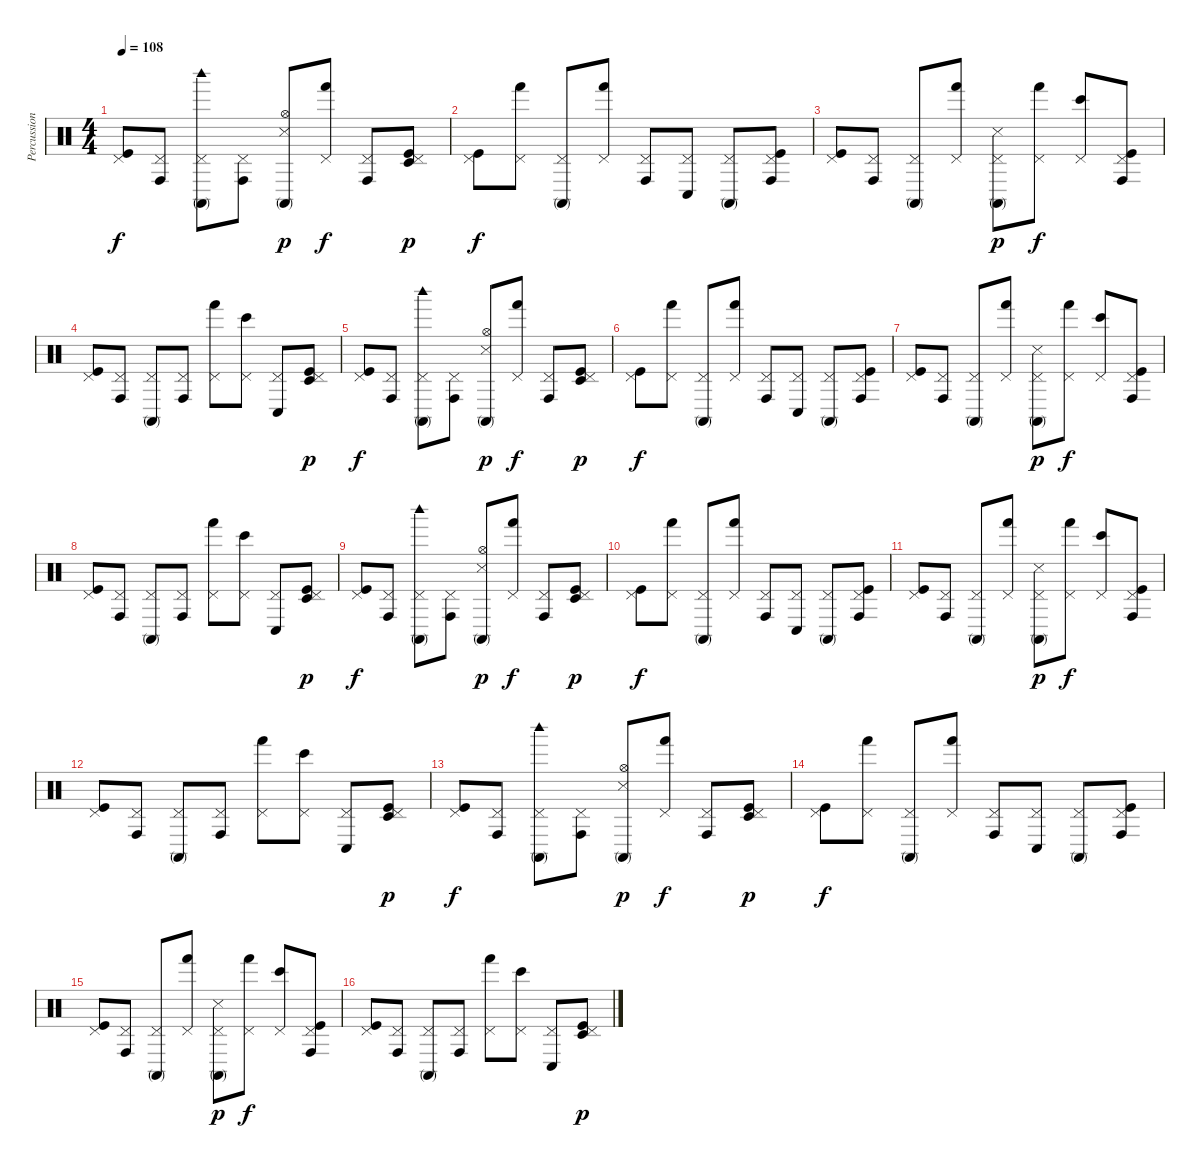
\track ("Percussions" "Percussion") {instrument percussion}
\staff {score}
\articulation defaults
\ts (4 4)
\tempo 108
\clef neutral
\ks c
("Pedal Hi-Hat (hit)" "Kick (hit)").8{dy f} ("Pedal Hi-Hat (hit)" "Conga high (hit)").8 ("Pedal Hi-Hat (hit)" "Conga high (mute)" "Woodblock high (hit)").8 ("Pedal Hi-Hat (hit)" "Conga high (hit)").8 ("Hi-Hat (open)" "Snare (side stick) 3" "Conga high (mute)").8{dy p} ("Pedal Hi-Hat (hit)" "Hand (hit)").8{dy f} ("Pedal Hi-Hat (hit)" "Conga high (hit)").8 ("Pedal Hi-Hat (hit)" "Kick (hit)" "Timbale low (hit)").8{dy p} |
("Pedal Hi-Hat (hit)" "Kick (hit)").8{dy f} ("Pedal Hi-Hat (hit)" "Hand (hit)").8 ("Pedal Hi-Hat (hit)" "Conga high (mute)").8 ("Pedal Hi-Hat (hit)" "Hand (hit)").8 ("Pedal Hi-Hat (hit)" "Conga high (hit)").8 ("Pedal Hi-Hat (hit)" "Conga low (hit)").8 ("Pedal Hi-Hat (hit)" "Conga high (mute)").8 ("Pedal Hi-Hat (hit)" "Kick (hit)" "Conga high (hit)").8 |
("Pedal Hi-Hat (hit)" "Kick (hit)").8 ("Pedal Hi-Hat (hit)" "Conga high (hit)").8 ("Pedal Hi-Hat (hit)" "Conga high (mute)").8 ("Pedal Hi-Hat (hit)" "Hand (hit)").8 ("Pedal Hi-Hat (hit)" "Conga high (mute)" "Snare (side stick) 3").8{dy p} ("Pedal Hi-Hat (hit)" "Hand (hit)").8{dy f} ("Pedal Hi-Hat (hit)" "Bongo High (hit)").8 ("Pedal Hi-Hat (hit)" "Conga high (hit)" "Kick (hit)").8 |
("Pedal Hi-Hat (hit)" "Kick (hit)").8 ("Pedal Hi-Hat (hit)" "Conga high (hit)").8 ("Pedal Hi-Hat (hit)" "Conga high (mute)").8 ("Pedal Hi-Hat (hit)" "Conga high (hit)").8 ("Pedal Hi-Hat (hit)" "Hand (hit)").8 ("Pedal Hi-Hat (hit)" "Bongo High (hit)").8 ("Pedal Hi-Hat (hit)" "Conga low (hit)").8 ("Pedal Hi-Hat (hit)" "Kick (hit)" "Timbale low (hit)").8{dy p} |
("Pedal Hi-Hat (hit)" "Kick (hit)").8{dy f} ("Pedal Hi-Hat (hit)" "Conga high (hit)").8 ("Pedal Hi-Hat (hit)" "Conga high (mute)" "Woodblock high (hit)").8 ("Pedal Hi-Hat (hit)" "Conga high (hit)").8 ("Hi-Hat (open)" "Snare (side stick) 3" "Conga high (mute)").8{dy p} ("Pedal Hi-Hat (hit)" "Hand (hit)").8{dy f} ("Pedal Hi-Hat (hit)" "Conga high (hit)").8 ("Pedal Hi-Hat (hit)" "Kick (hit)" "Timbale low (hit)").8{dy p} |
("Pedal Hi-Hat (hit)" "Kick (hit)").8{dy f} ("Pedal Hi-Hat (hit)" "Hand (hit)").8 ("Pedal Hi-Hat (hit)" "Conga high (mute)").8 ("Pedal Hi-Hat (hit)" "Hand (hit)").8 ("Pedal Hi-Hat (hit)" "Conga high (hit)").8 ("Pedal Hi-Hat (hit)" "Conga low (hit)").8 ("Pedal Hi-Hat (hit)" "Conga high (mute)").8 ("Pedal Hi-Hat (hit)" "Kick (hit)" "Conga high (hit)").8 |
("Pedal Hi-Hat (hit)" "Kick (hit)").8 ("Pedal Hi-Hat (hit)" "Conga high (hit)").8 ("Pedal Hi-Hat (hit)" "Conga high (mute)").8 ("Pedal Hi-Hat (hit)" "Hand (hit)").8 ("Pedal Hi-Hat (hit)" "Conga high (mute)" "Snare (side stick) 3").8{dy p} ("Pedal Hi-Hat (hit)" "Hand (hit)").8{dy f} ("Pedal Hi-Hat (hit)" "Bongo High (hit)").8 ("Pedal Hi-Hat (hit)" "Conga high (hit)" "Kick (hit)").8 |
("Pedal Hi-Hat (hit)" "Kick (hit)").8 ("Pedal Hi-Hat (hit)" "Conga high (hit)").8 ("Pedal Hi-Hat (hit)" "Conga high (mute)").8 ("Pedal Hi-Hat (hit)" "Conga high (hit)").8 ("Pedal Hi-Hat (hit)" "Hand (hit)").8 ("Pedal Hi-Hat (hit)" "Bongo High (hit)").8 ("Pedal Hi-Hat (hit)" "Conga low (hit)").8 ("Pedal Hi-Hat (hit)" "Kick (hit)" "Timbale low (hit)").8{dy p} |
("Pedal Hi-Hat (hit)" "Kick (hit)").8{dy f} ("Pedal Hi-Hat (hit)" "Conga high (hit)").8 ("Pedal Hi-Hat (hit)" "Conga high (mute)" "Woodblock high (hit)").8 ("Pedal Hi-Hat (hit)" "Conga high (hit)").8 ("Hi-Hat (open)" "Snare (side stick) 3" "Conga high (mute)").8{dy p} ("Pedal Hi-Hat (hit)" "Hand (hit)").8{dy f} ("Pedal Hi-Hat (hit)" "Conga high (hit)").8 ("Pedal Hi-Hat (hit)" "Kick (hit)" "Timbale low (hit)").8{dy p} |
("Pedal Hi-Hat (hit)" "Kick (hit)").8{dy f} ("Pedal Hi-Hat (hit)" "Hand (hit)").8 ("Pedal Hi-Hat (hit)" "Conga high (mute)").8 ("Pedal Hi-Hat (hit)" "Hand (hit)").8 ("Pedal Hi-Hat (hit)" "Conga high (hit)").8 ("Pedal Hi-Hat (hit)" "Conga low (hit)").8 ("Pedal Hi-Hat (hit)" "Conga high (mute)").8 ("Pedal Hi-Hat (hit)" "Kick (hit)" "Conga high (hit)").8 |
("Pedal Hi-Hat (hit)" "Kick (hit)").8 ("Pedal Hi-Hat (hit)" "Conga high (hit)").8 ("Pedal Hi-Hat (hit)" "Conga high (mute)").8 ("Pedal Hi-Hat (hit)" "Hand (hit)").8 ("Pedal Hi-Hat (hit)" "Conga high (mute)" "Snare (side stick) 3").8{dy p} ("Pedal Hi-Hat (hit)" "Hand (hit)").8{dy f} ("Pedal Hi-Hat (hit)" "Bongo High (hit)").8 ("Pedal Hi-Hat (hit)" "Conga high (hit)" "Kick (hit)").8 |
("Pedal Hi-Hat (hit)" "Kick (hit)").8 ("Pedal Hi-Hat (hit)" "Conga high (hit)").8 ("Pedal Hi-Hat (hit)" "Conga high (mute)").8 ("Pedal Hi-Hat (hit)" "Conga high (hit)").8 ("Pedal Hi-Hat (hit)" "Hand (hit)").8 ("Pedal Hi-Hat (hit)" "Bongo High (hit)").8 ("Pedal Hi-Hat (hit)" "Conga low (hit)").8 ("Pedal Hi-Hat (hit)" "Kick (hit)" "Timbale low (hit)").8{dy p} |
("Pedal Hi-Hat (hit)" "Kick (hit)").8{dy f} ("Pedal Hi-Hat (hit)" "Conga high (hit)").8 ("Pedal Hi-Hat (hit)" "Conga high (mute)" "Woodblock high (hit)").8 ("Pedal Hi-Hat (hit)" "Conga high (hit)").8 ("Hi-Hat (open)" "Snare (side stick) 3" "Conga high (mute)").8{dy p} ("Pedal Hi-Hat (hit)" "Hand (hit)").8{dy f} ("Pedal Hi-Hat (hit)" "Conga high (hit)").8 ("Pedal Hi-Hat (hit)" "Kick (hit)" "Timbale low (hit)").8{dy p} |
("Pedal Hi-Hat (hit)" "Kick (hit)").8{dy f} ("Pedal Hi-Hat (hit)" "Hand (hit)").8 ("Pedal Hi-Hat (hit)" "Conga high (mute)").8 ("Pedal Hi-Hat (hit)" "Hand (hit)").8 ("Pedal Hi-Hat (hit)" "Conga high (hit)").8 ("Pedal Hi-Hat (hit)" "Conga low (hit)").8 ("Pedal Hi-Hat (hit)" "Conga high (mute)").8 ("Pedal Hi-Hat (hit)" "Kick (hit)" "Conga high (hit)").8 |
("Pedal Hi-Hat (hit)" "Kick (hit)").8 ("Pedal Hi-Hat (hit)" "Conga high (hit)").8 ("Pedal Hi-Hat (hit)" "Conga high (mute)").8 ("Pedal Hi-Hat (hit)" "Hand (hit)").8 ("Pedal Hi-Hat (hit)" "Conga high (mute)" "Snare (side stick) 3").8{dy p} ("Pedal Hi-Hat (hit)" "Hand (hit)").8{dy f} ("Pedal Hi-Hat (hit)" "Bongo High (hit)").8 ("Pedal Hi-Hat (hit)" "Conga high (hit)" "Kick (hit)").8 |
("Pedal Hi-Hat (hit)" "Kick (hit)").8 ("Pedal Hi-Hat (hit)" "Conga high (hit)").8 ("Pedal Hi-Hat (hit)" "Conga high (mute)").8 ("Pedal Hi-Hat (hit)" "Conga high (hit)").8 ("Pedal Hi-Hat (hit)" "Hand (hit)").8 ("Pedal Hi-Hat (hit)" "Bongo High (hit)").8 ("Pedal Hi-Hat (hit)" "Conga low (hit)").8 ("Pedal Hi-Hat (hit)" "Kick (hit)" "Timbale low (hit)").8{dy p}
